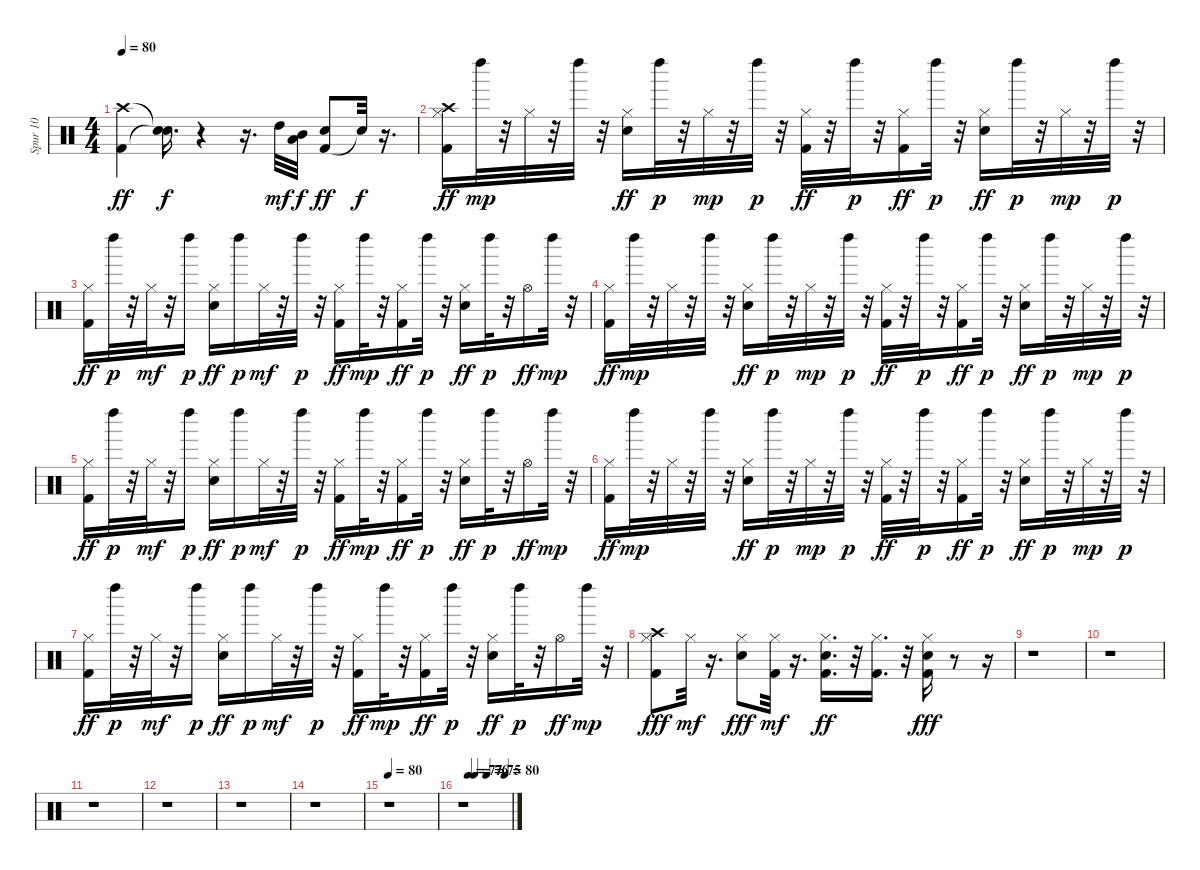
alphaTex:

\track ("Spur 10" "Spur 10") {instrument percussion}
\staff {score}
\articulation defaults
\ts (4 4)
\tempo 80
\clef neutral
\ks c
("Crash high (hit)" "Kick (hit) 2").4{dy ff} ("Snare (hit)"{t} "Snare (hit)"{t}).16{d dy f} r.4 r.16{d} "High Tom (hit)".32{dy mf} ("Mid Tom (hit)" "Low Tom (hit)").32{dy f} ("Kick (hit) 2" "Electric Snare (hit)").8{dy ff} "Snare (hit)"{t}.32{dy f} r.16{d} |
("Hi-Hat (closed)" "Kick (hit) 2" "Crash high (hit)").16{dy ff} "Left Maraca (hit)".32{dy mp} r.32 "Hi-Hat (closed)".32 r.32 "Left Maraca (hit)".32 r.32 ("Electric Snare (hit)" "Hi-Hat (closed)").16{dy ff} "Left Maraca (hit)".32{dy p} r.32 "Hi-Hat (closed)".32{dy mp} r.32 "Left Maraca (hit)".32{dy p} r.32 ("Hi-Hat (closed)" "Kick (hit) 2").32{dy ff} r.32 "Left Maraca (hit)".32{dy p} r.32 ("Hi-Hat (closed)" "Kick (hit) 2").16{dy ff} "Left Maraca (hit)".32{dy p} r.32 ("Electric Snare (hit)" "Hi-Hat (closed)").16{dy ff} "Left Maraca (hit)".32{dy p} r.32 "Hi-Hat (closed)".32{dy mp} r.32 "Left Maraca (hit)".32{dy p} r.32 |
("Hi-Hat (closed)" "Kick (hit) 2").16{dy ff} "Left Maraca (hit)".32{dy p} r.32 "Hi-Hat (closed)".32{dy mf} r.32 "Left Maraca (hit)".16{dy p} ("Electric Snare (hit)" "Hi-Hat (closed)").16{dy ff} "Left Maraca (hit)".16{dy p} "Hi-Hat (closed)".32{dy mf} r.32 "Left Maraca (hit)".32{dy p} r.32 ("Hi-Hat (closed)" "Kick (hit) 2").16{dy ff} "Left Maraca (hit)".32{dy mp} r.32 ("Hi-Hat (closed)" "Kick (hit) 2").16{dy ff} "Left Maraca (hit)".32{dy p} r.32 ("Electric Snare (hit)" "Hi-Hat (closed)").16{dy ff} "Left Maraca (hit)".32{dy p} r.32 "Hi-Hat (open)".16{dy ff} "Left Maraca (hit)".32{dy mp} r.32 |
("Hi-Hat (closed)" "Kick (hit) 2").16{dy ff} "Left Maraca (hit)".32{dy mp} r.32 "Hi-Hat (closed)".32 r.32 "Left Maraca (hit)".32 r.32 ("Electric Snare (hit)" "Hi-Hat (closed)").16{dy ff} "Left Maraca (hit)".32{dy p} r.32 "Hi-Hat (closed)".32{dy mp} r.32 "Left Maraca (hit)".32{dy p} r.32 ("Hi-Hat (closed)" "Kick (hit) 2").32{dy ff} r.32 "Left Maraca (hit)".32{dy p} r.32 ("Hi-Hat (closed)" "Kick (hit) 2").16{dy ff} "Left Maraca (hit)".32{dy p} r.32 ("Electric Snare (hit)" "Hi-Hat (closed)").16{dy ff} "Left Maraca (hit)".32{dy p} r.32 "Hi-Hat (closed)".32{dy mp} r.32 "Left Maraca (hit)".32{dy p} r.32 |
("Hi-Hat (closed)" "Kick (hit) 2").16{dy ff} "Left Maraca (hit)".32{dy p} r.32 "Hi-Hat (closed)".32{dy mf} r.32 "Left Maraca (hit)".16{dy p} ("Electric Snare (hit)" "Hi-Hat (closed)").16{dy ff} "Left Maraca (hit)".16{dy p} "Hi-Hat (closed)".32{dy mf} r.32 "Left Maraca (hit)".32{dy p} r.32 ("Hi-Hat (closed)" "Kick (hit) 2").16{dy ff} "Left Maraca (hit)".32{dy mp} r.32 ("Hi-Hat (closed)" "Kick (hit) 2").16{dy ff} "Left Maraca (hit)".32{dy p} r.32 ("Electric Snare (hit)" "Hi-Hat (closed)").16{dy ff} "Left Maraca (hit)".32{dy p} r.32 "Hi-Hat (open)".16{dy ff} "Left Maraca (hit)".32{dy mp} r.32 |
("Hi-Hat (closed)" "Kick (hit) 2").16{dy ff} "Left Maraca (hit)".32{dy mp} r.32 "Hi-Hat (closed)".32 r.32 "Left Maraca (hit)".32 r.32 ("Electric Snare (hit)" "Hi-Hat (closed)").16{dy ff} "Left Maraca (hit)".32{dy p} r.32 "Hi-Hat (closed)".32{dy mp} r.32 "Left Maraca (hit)".32{dy p} r.32 ("Hi-Hat (closed)" "Kick (hit) 2").32{dy ff} r.32 "Left Maraca (hit)".32{dy p} r.32 ("Hi-Hat (closed)" "Kick (hit) 2").16{dy ff} "Left Maraca (hit)".32{dy p} r.32 ("Electric Snare (hit)" "Hi-Hat (closed)").16{dy ff} "Left Maraca (hit)".32{dy p} r.32 "Hi-Hat (closed)".32{dy mp} r.32 "Left Maraca (hit)".32{dy p} r.32 |
("Hi-Hat (closed)" "Kick (hit) 2").16{dy ff} "Left Maraca (hit)".32{dy p} r.32 "Hi-Hat (closed)".32{dy mf} r.32 "Left Maraca (hit)".16{dy p} ("Electric Snare (hit)" "Hi-Hat (closed)").16{dy ff} "Left Maraca (hit)".16{dy p} "Hi-Hat (closed)".32{dy mf} r.32 "Left Maraca (hit)".32{dy p} r.32 ("Hi-Hat (closed)" "Kick (hit) 2").16{dy ff} "Left Maraca (hit)".32{dy mp} r.32 ("Hi-Hat (closed)" "Kick (hit) 2").16{dy ff} "Left Maraca (hit)".32{dy p} r.32 ("Electric Snare (hit)" "Hi-Hat (closed)").16{dy ff} "Left Maraca (hit)".32{dy p} r.32 "Hi-Hat (open)".16{dy ff} "Left Maraca (hit)".32{dy mp} r.32 |
("Hi-Hat (closed)" "Kick (hit) 2" "Crash high (hit)").8{dy fff} "Hi-Hat (closed)".32{dy mf} r.16{d} ("Electric Snare (hit)" "Hi-Hat (closed)").8{dy fff} ("Hi-Hat (closed)" "Kick (hit) 2").32{dy mf} r.16{d} ("Electric Snare (hit)" "Hi-Hat (closed)" "Kick (hit) 2").16{d dy ff} r.32 ("Hi-Hat (closed)" "Kick (hit) 2").16{d} r.32 ("Electric Snare (hit)" "Hi-Hat (closed)" "Kick (hit) 2").16{dy fff} r.8 r.16 |
r.1 |
r.1 |
r.1 |
r.1 |
r.1 |
r.1 |
\tempo 80
r.1 |
\tempo (77 0.125)
\tempo (76 0.25)
\tempo (75 0.5)
\tempo (80 0.875)
r.1
